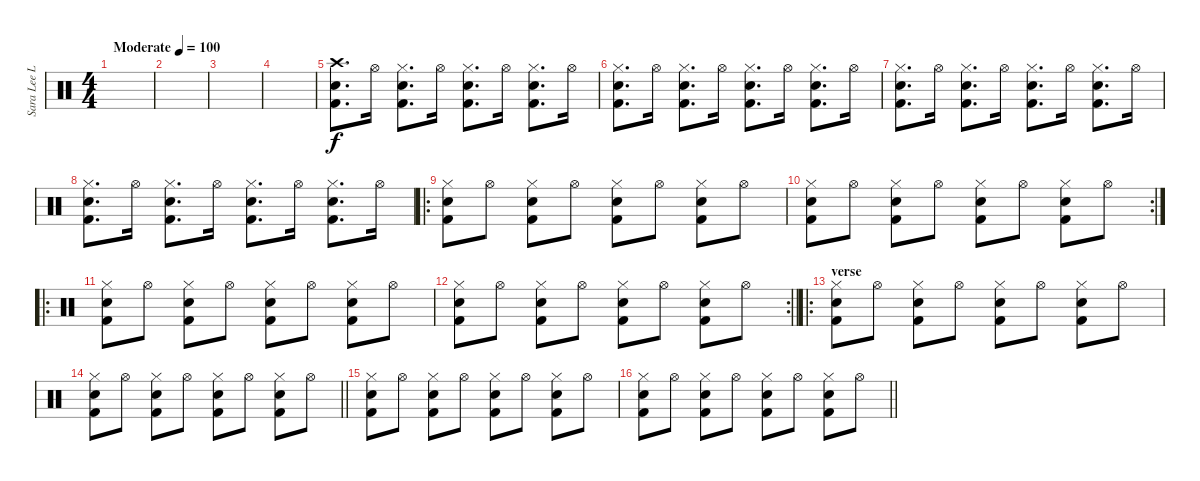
\track ("Sara Lee Lucas (drums)" "Sara Lee L") {instrument percussion}
\staff {score}
\articulation defaults
\ts (4 4)
\tempo (100 "Moderate")
\clef neutral
\ks c
|
|
|
|
("Crash high (hit)" "Snare (hit) 2" "Kick (hit) 2").8{d} "Hi-Hat (open)".16 ("Hi-Hat (closed)" "Snare (hit) 2" "Kick (hit) 2").8{d} "Hi-Hat (open)".16 ("Hi-Hat (closed)" "Snare (hit) 2" "Kick (hit) 2").8{d} "Hi-Hat (open)".16 ("Hi-Hat (closed)" "Snare (hit) 2" "Kick (hit) 2").8{d} "Hi-Hat (open)".16 |
("Hi-Hat (closed)" "Snare (hit) 2" "Kick (hit) 2").8{d} "Hi-Hat (open)".16 ("Hi-Hat (closed)" "Snare (hit) 2" "Kick (hit) 2").8{d} "Hi-Hat (open)".16 ("Hi-Hat (closed)" "Snare (hit) 2" "Kick (hit) 2").8{d} "Hi-Hat (open)".16 ("Hi-Hat (closed)" "Snare (hit) 2" "Kick (hit) 2").8{d} "Hi-Hat (open)".16 |
("Hi-Hat (closed)" "Snare (hit) 2" "Kick (hit) 2").8{d} "Hi-Hat (open)".16 ("Hi-Hat (closed)" "Snare (hit) 2" "Kick (hit) 2").8{d} "Hi-Hat (open)".16 ("Hi-Hat (closed)" "Snare (hit) 2" "Kick (hit) 2").8{d} "Hi-Hat (open)".16 ("Hi-Hat (closed)" "Snare (hit) 2" "Kick (hit) 2").8{d} "Hi-Hat (open)".16 |
("Hi-Hat (closed)" "Snare (hit) 2" "Kick (hit) 2").8{d} "Hi-Hat (open)".16 ("Hi-Hat (closed)" "Snare (hit) 2" "Kick (hit) 2").8{d} "Hi-Hat (open)".16 ("Hi-Hat (closed)" "Snare (hit) 2" "Kick (hit) 2").8{d} "Hi-Hat (open)".16 ("Hi-Hat (closed)" "Snare (hit) 2" "Kick (hit) 2").8{d} "Hi-Hat (open)".16 |
\ro
("Hi-Hat (closed)" "Snare (hit) 2" "Kick (hit) 2").8 "Hi-Hat (open)".8 ("Hi-Hat (closed)" "Snare (hit) 2" "Kick (hit) 2").8 "Hi-Hat (open)".8 ("Hi-Hat (closed)" "Snare (hit) 2" "Kick (hit) 2").8 "Hi-Hat (open)".8 ("Hi-Hat (closed)" "Snare (hit) 2" "Kick (hit) 2").8 "Hi-Hat (open)".8 |
\rc 2
("Hi-Hat (closed)" "Snare (hit) 2" "Kick (hit) 2").8 "Hi-Hat (open)".8 ("Hi-Hat (closed)" "Snare (hit) 2" "Kick (hit) 2").8 "Hi-Hat (open)".8 ("Hi-Hat (closed)" "Snare (hit) 2" "Kick (hit) 2").8 "Hi-Hat (open)".8 ("Hi-Hat (closed)" "Snare (hit) 2" "Kick (hit) 2").8 "Hi-Hat (open)".8 |
\ro
("Hi-Hat (closed)" "Snare (hit) 2" "Kick (hit) 2").8 "Hi-Hat (open)".8 ("Hi-Hat (closed)" "Snare (hit) 2" "Kick (hit) 2").8 "Hi-Hat (open)".8 ("Hi-Hat (closed)" "Snare (hit) 2" "Kick (hit) 2").8 "Hi-Hat (open)".8 ("Hi-Hat (closed)" "Snare (hit) 2" "Kick (hit) 2").8 "Hi-Hat (open)".8 |
\rc 2
\barLineRight lightlight
("Hi-Hat (closed)" "Snare (hit) 2" "Kick (hit) 2").8 "Hi-Hat (open)".8 ("Hi-Hat (closed)" "Snare (hit) 2" "Kick (hit) 2").8 "Hi-Hat (open)".8 ("Hi-Hat (closed)" "Snare (hit) 2" "Kick (hit) 2").8 "Hi-Hat (open)".8 ("Hi-Hat (closed)" "Snare (hit) 2" "Kick (hit) 2").8 "Hi-Hat (open)".8 |
\ro
\section ("" "verse")
("Hi-Hat (closed)" "Snare (hit) 2" "Kick (hit) 2").8 "Hi-Hat (open)".8 ("Hi-Hat (closed)" "Snare (hit) 2" "Kick (hit) 2").8 "Hi-Hat (open)".8 ("Hi-Hat (closed)" "Snare (hit) 2" "Kick (hit) 2").8 "Hi-Hat (open)".8 ("Hi-Hat (closed)" "Snare (hit) 2" "Kick (hit) 2").8 "Hi-Hat (open)".8 |
\barLineRight lightlight
("Hi-Hat (closed)" "Snare (hit) 2" "Kick (hit) 2").8 "Hi-Hat (open)".8 ("Hi-Hat (closed)" "Snare (hit) 2" "Kick (hit) 2").8 "Hi-Hat (open)".8 ("Hi-Hat (closed)" "Snare (hit) 2" "Kick (hit) 2").8 "Hi-Hat (open)".8 ("Hi-Hat (closed)" "Snare (hit) 2" "Kick (hit) 2").8 "Hi-Hat (open)".8 |
("Hi-Hat (closed)" "Snare (hit) 2" "Kick (hit) 2").8 "Hi-Hat (open)".8 ("Hi-Hat (closed)" "Snare (hit) 2" "Kick (hit) 2").8 "Hi-Hat (open)".8 ("Hi-Hat (closed)" "Snare (hit) 2" "Kick (hit) 2").8 "Hi-Hat (open)".8 ("Hi-Hat (closed)" "Snare (hit) 2" "Kick (hit) 2").8 "Hi-Hat (open)".8 |
\barLineRight lightlight
("Hi-Hat (closed)" "Snare (hit) 2" "Kick (hit) 2").8 "Hi-Hat (open)".8 ("Hi-Hat (closed)" "Snare (hit) 2" "Kick (hit) 2").8 "Hi-Hat (open)".8 ("Hi-Hat (closed)" "Snare (hit) 2" "Kick (hit) 2").8 "Hi-Hat (open)".8 ("Hi-Hat (closed)" "Snare (hit) 2" "Kick (hit) 2").8 "Hi-Hat (open)".8
